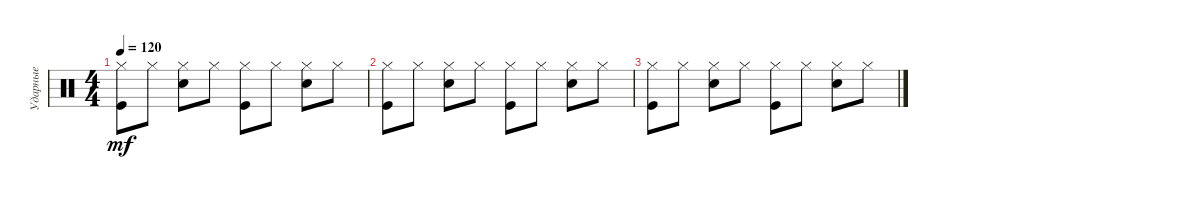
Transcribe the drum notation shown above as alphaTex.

\track ("Ударные" "Ударные") {instrument percussion}
\staff {score}
\articulation defaults
\ts (4 4)
\tempo 120
\clef neutral
\ks c
("Kick (hit)" "Hi-Hat (closed)").8{dy mf} "Hi-Hat (closed)".8 ("Snare (hit) 2" "Hi-Hat (closed)").8 "Hi-Hat (closed)".8 ("Kick (hit)" "Hi-Hat (closed)").8 "Hi-Hat (closed)".8 ("Snare (hit) 2" "Hi-Hat (closed)").8 "Hi-Hat (closed)".8 |
("Kick (hit)" "Hi-Hat (closed)").8 "Hi-Hat (closed)".8 ("Snare (hit) 2" "Hi-Hat (closed)").8 "Hi-Hat (closed)".8 ("Kick (hit)" "Hi-Hat (closed)").8 "Hi-Hat (closed)".8 ("Snare (hit) 2" "Hi-Hat (closed)").8 "Hi-Hat (closed)".8 |
("Kick (hit)" "Hi-Hat (closed)").8 "Hi-Hat (closed)".8 ("Snare (hit) 2" "Hi-Hat (closed)").8 "Hi-Hat (closed)".8 ("Kick (hit)" "Hi-Hat (closed)").8 "Hi-Hat (closed)".8 ("Snare (hit) 2" "Hi-Hat (closed)").8 "Hi-Hat (closed)".8
